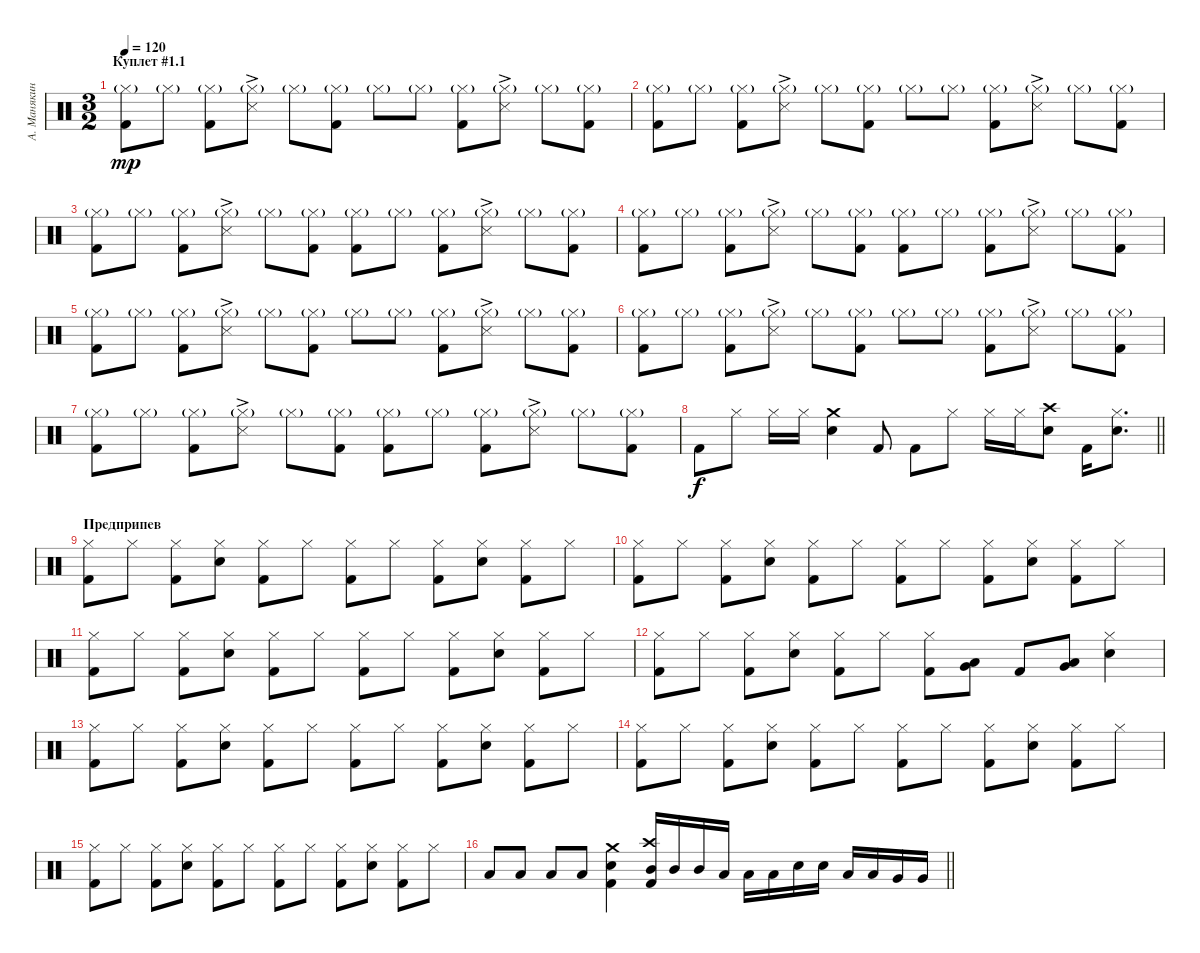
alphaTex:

\track ("А. Манякин" "А. Манякин") {instrument percussion}
\staff {score}
\articulation defaults
\ts (3 2)
\section ("" "Куплет #1.1")
\tempo 120
\clef neutral
\ks c
("Kick (hit) 2" "Hi-Hat (closed)"{g}).8{dy mp} "Hi-Hat (closed)"{g}.8 ("Kick (hit) 2" "Hi-Hat (closed)"{g}).8 ("Snare (side stick) 3"{ac} "Hi-Hat (closed)"{g}).8 "Hi-Hat (closed)"{g}.8 ("Kick (hit) 2" "Hi-Hat (closed)"{g}).8 "Hi-Hat (closed)"{g}.8 "Hi-Hat (closed)"{g}.8 ("Kick (hit) 2" "Hi-Hat (closed)"{g}).8 ("Snare (side stick) 3"{ac} "Hi-Hat (closed)"{g}).8 "Hi-Hat (closed)"{g}.8 ("Kick (hit) 2" "Hi-Hat (closed)"{g}).8 |
("Kick (hit) 2" "Hi-Hat (closed)"{g}).8 "Hi-Hat (closed)"{g}.8 ("Kick (hit) 2" "Hi-Hat (closed)"{g}).8 ("Snare (side stick) 3"{ac} "Hi-Hat (closed)"{g}).8 "Hi-Hat (closed)"{g}.8 ("Kick (hit) 2" "Hi-Hat (closed)"{g}).8 "Hi-Hat (closed)"{g}.8 "Hi-Hat (closed)"{g}.8 ("Kick (hit) 2" "Hi-Hat (closed)"{g}).8 ("Snare (side stick) 3"{ac} "Hi-Hat (closed)"{g}).8 "Hi-Hat (closed)"{g}.8 ("Kick (hit) 2" "Hi-Hat (closed)"{g}).8 |
("Kick (hit) 2" "Hi-Hat (closed)"{g}).8 "Hi-Hat (closed)"{g}.8 ("Kick (hit) 2" "Hi-Hat (closed)"{g}).8 ("Snare (side stick) 3"{ac} "Hi-Hat (closed)"{g}).8 "Hi-Hat (closed)"{g}.8 ("Kick (hit) 2" "Hi-Hat (closed)"{g}).8 ("Kick (hit) 2" "Hi-Hat (closed)"{g}).8 "Hi-Hat (closed)"{g}.8 ("Kick (hit) 2" "Hi-Hat (closed)"{g}).8 ("Snare (side stick) 3"{ac} "Hi-Hat (closed)"{g}).8 "Hi-Hat (closed)"{g}.8 ("Kick (hit) 2" "Hi-Hat (closed)"{g}).8 |
("Kick (hit) 2" "Hi-Hat (closed)"{g}).8 "Hi-Hat (closed)"{g}.8 ("Kick (hit) 2" "Hi-Hat (closed)"{g}).8 ("Snare (side stick) 3"{ac} "Hi-Hat (closed)"{g}).8 "Hi-Hat (closed)"{g}.8 ("Kick (hit) 2" "Hi-Hat (closed)"{g}).8 ("Kick (hit) 2" "Hi-Hat (closed)"{g}).8 "Hi-Hat (closed)"{g}.8 ("Kick (hit) 2" "Hi-Hat (closed)"{g}).8 ("Snare (side stick) 3"{ac} "Hi-Hat (closed)"{g}).8 "Hi-Hat (closed)"{g}.8 ("Kick (hit) 2" "Hi-Hat (closed)"{g}).8 |
("Kick (hit) 2" "Hi-Hat (closed)"{g}).8 "Hi-Hat (closed)"{g}.8 ("Kick (hit) 2" "Hi-Hat (closed)"{g}).8 ("Snare (side stick) 3"{ac} "Hi-Hat (closed)"{g}).8 "Hi-Hat (closed)"{g}.8 ("Kick (hit) 2" "Hi-Hat (closed)"{g}).8 "Hi-Hat (closed)"{g}.8 "Hi-Hat (closed)"{g}.8 ("Kick (hit) 2" "Hi-Hat (closed)"{g}).8 ("Snare (side stick) 3"{ac} "Hi-Hat (closed)"{g}).8 "Hi-Hat (closed)"{g}.8 ("Kick (hit) 2" "Hi-Hat (closed)"{g}).8 |
("Kick (hit) 2" "Hi-Hat (closed)"{g}).8 "Hi-Hat (closed)"{g}.8 ("Kick (hit) 2" "Hi-Hat (closed)"{g}).8 ("Snare (side stick) 3"{ac} "Hi-Hat (closed)"{g}).8 "Hi-Hat (closed)"{g}.8 ("Kick (hit) 2" "Hi-Hat (closed)"{g}).8 "Hi-Hat (closed)"{g}.8 "Hi-Hat (closed)"{g}.8 ("Kick (hit) 2" "Hi-Hat (closed)"{g}).8 ("Snare (side stick) 3"{ac} "Hi-Hat (closed)"{g}).8 "Hi-Hat (closed)"{g}.8 ("Kick (hit) 2" "Hi-Hat (closed)"{g}).8 |
("Kick (hit) 2" "Hi-Hat (closed)"{g}).8 "Hi-Hat (closed)"{g}.8 ("Kick (hit) 2" "Hi-Hat (closed)"{g}).8 ("Snare (side stick) 3"{ac} "Hi-Hat (closed)"{g}).8 "Hi-Hat (closed)"{g}.8 ("Kick (hit) 2" "Hi-Hat (closed)"{g}).8 ("Kick (hit) 2" "Hi-Hat (closed)"{g}).8 "Hi-Hat (closed)"{g}.8 ("Kick (hit) 2" "Hi-Hat (closed)"{g}).8 ("Snare (side stick) 3"{ac} "Hi-Hat (closed)"{g}).8 "Hi-Hat (closed)"{g}.8 ("Kick (hit) 2" "Hi-Hat (closed)"{g}).8 |
\barLineRight lightlight "Kick (hit) 2".8{dy f} "Hi-Hat (closed)".8 "Hi-Hat (closed)".16 "Hi-Hat (closed)".16
("Electric Snare (hit)" "Crash medium (hit)").4 "Kick (hit) 2".8 "Kick (hit) 2".8 "Hi-Hat (closed)".8 "Hi-Hat (closed)".16 "Hi-Hat (closed)".16 ("Electric Snare (hit)" "Crash high (hit)").8 "Kick (hit) 2".16 ("Electric Snare (hit)" "Hi-Hat (closed)").8{d} |
\section ("" "Предприпев")
("Kick (hit) 2" "Hi-Hat (closed)").8 "Hi-Hat (closed)".8 ("Kick (hit) 2" "Hi-Hat (closed)").8 ("Electric Snare (hit)" "Hi-Hat (closed)").8 ("Kick (hit) 2" "Hi-Hat (closed)").8 "Hi-Hat (closed)".8 ("Kick (hit) 2" "Hi-Hat (closed)").8 "Hi-Hat (closed)".8 ("Kick (hit) 2" "Hi-Hat (closed)").8 ("Electric Snare (hit)" "Hi-Hat (closed)").8 ("Kick (hit) 2" "Hi-Hat (closed)").8 "Hi-Hat (closed)".8 |
("Kick (hit) 2" "Hi-Hat (closed)").8 "Hi-Hat (closed)".8 ("Kick (hit) 2" "Hi-Hat (closed)").8 ("Electric Snare (hit)" "Hi-Hat (closed)").8 ("Kick (hit) 2" "Hi-Hat (closed)").8 "Hi-Hat (closed)".8 ("Kick (hit) 2" "Hi-Hat (closed)").8 "Hi-Hat (closed)".8 ("Kick (hit) 2" "Hi-Hat (closed)").8 ("Electric Snare (hit)" "Hi-Hat (closed)").8 ("Kick (hit) 2" "Hi-Hat (closed)").8 "Hi-Hat (closed)".8 |
("Kick (hit) 2" "Hi-Hat (closed)").8 "Hi-Hat (closed)".8 ("Kick (hit) 2" "Hi-Hat (closed)").8 ("Electric Snare (hit)" "Hi-Hat (closed)").8 ("Kick (hit) 2" "Hi-Hat (closed)").8 "Hi-Hat (closed)".8 ("Kick (hit) 2" "Hi-Hat (closed)").8 "Hi-Hat (closed)".8 ("Kick (hit) 2" "Hi-Hat (closed)").8 ("Electric Snare (hit)" "Hi-Hat (closed)").8 ("Kick (hit) 2" "Hi-Hat (closed)").8 "Hi-Hat (closed)".8 |
("Kick (hit) 2" "Hi-Hat (closed)").8 "Hi-Hat (closed)".8 ("Kick (hit) 2" "Hi-Hat (closed)").8 ("Electric Snare (hit)" "Hi-Hat (closed)").8 ("Kick (hit) 2" "Hi-Hat (closed)").8 "Hi-Hat (closed)".8 ("Kick (hit) 2" "Hi-Hat (closed)").8 ("Low Tom (hit)" "Very Low Tom (hit)").8 "Kick (hit) 2".8 ("Low Tom (hit)" "Very Low Tom (hit)").8 ("Electric Snare (hit)" "Hi-Hat (closed)").4 |
("Kick (hit) 2" "Hi-Hat (closed)").8 "Hi-Hat (closed)".8 ("Kick (hit) 2" "Hi-Hat (closed)").8 ("Electric Snare (hit)" "Hi-Hat (closed)").8 ("Kick (hit) 2" "Hi-Hat (closed)").8 "Hi-Hat (closed)".8 ("Kick (hit) 2" "Hi-Hat (closed)").8 "Hi-Hat (closed)".8 ("Kick (hit) 2" "Hi-Hat (closed)").8 ("Electric Snare (hit)" "Hi-Hat (closed)").8 ("Kick (hit) 2" "Hi-Hat (closed)").8 "Hi-Hat (closed)".8 |
("Kick (hit) 2" "Hi-Hat (closed)").8 "Hi-Hat (closed)".8 ("Kick (hit) 2" "Hi-Hat (closed)").8 ("Electric Snare (hit)" "Hi-Hat (closed)").8 ("Kick (hit) 2" "Hi-Hat (closed)").8 "Hi-Hat (closed)".8 ("Kick (hit) 2" "Hi-Hat (closed)").8 "Hi-Hat (closed)".8 ("Kick (hit) 2" "Hi-Hat (closed)").8 ("Electric Snare (hit)" "Hi-Hat (closed)").8 ("Kick (hit) 2" "Hi-Hat (closed)").8 "Hi-Hat (closed)".8 |
("Kick (hit) 2" "Hi-Hat (closed)").8 "Hi-Hat (closed)".8 ("Kick (hit) 2" "Hi-Hat (closed)").8 ("Electric Snare (hit)" "Hi-Hat (closed)").8 ("Kick (hit) 2" "Hi-Hat (closed)").8 "Hi-Hat (closed)".8 ("Kick (hit) 2" "Hi-Hat (closed)").8 "Hi-Hat (closed)".8 ("Kick (hit) 2" "Hi-Hat (closed)").8 ("Electric Snare (hit)" "Hi-Hat (closed)").8 ("Kick (hit) 2" "Hi-Hat (closed)").8 "Hi-Hat (closed)".8 |
\barLineRight lightlight "Low Tom (hit)".8 "Low Tom (hit)".8 "Low Tom (hit)".8 "Low Tom (hit)".8
("Kick (hit) 2" "Electric Snare (hit)" "Crash medium (hit)").4 ("Kick (hit) 2" "Mid Tom (hit)" "Crash high (hit)").16 "Mid Tom (hit)".16 "Mid Tom (hit)".16 "Low Tom (hit)".16 "Low Tom (hit)".16 "Low Tom (hit)".16 "Electric Snare (hit)".16 "Electric Snare (hit)".16 "Low Tom (hit)".16 "Low Tom (hit)".16 "Very Low Tom (hit)".16 "Very Low Tom (hit)".16
